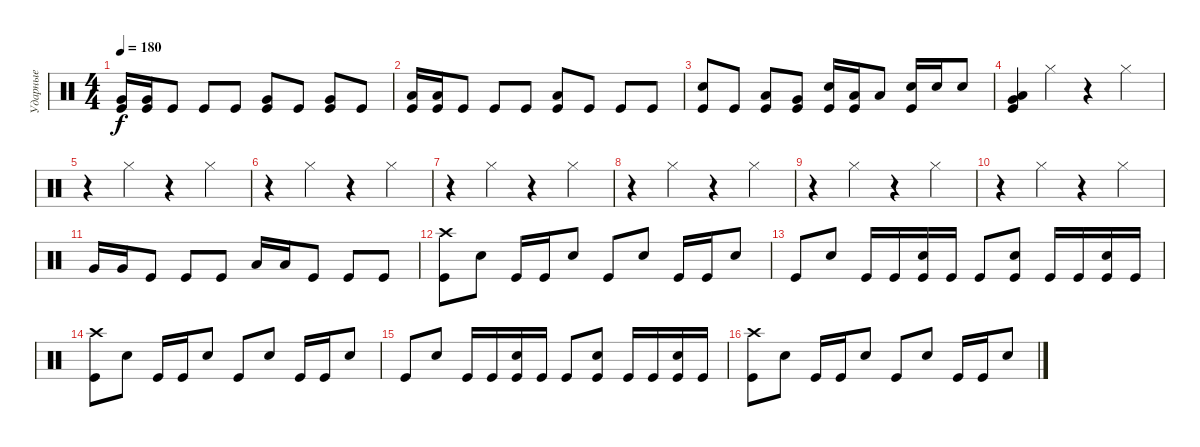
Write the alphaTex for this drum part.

\track ("Ударные" "Ударные") {instrument percussion}
\staff {score}
\articulation defaults
\ts (4 4)
\tempo 180
\clef neutral
\ks c
("Very Low Tom (hit)" "Kick (hit)").16{dy f} ("Very Low Tom (hit)" "Kick (hit)").16 "Kick (hit)".8 "Kick (hit)".8 "Kick (hit)".8 ("Very Low Tom (hit)" "Kick (hit)").8 "Kick (hit)".8 ("Very Low Tom (hit)" "Kick (hit)").8 "Kick (hit)".8 |
("Low Tom (hit)" "Kick (hit)").16 ("Low Tom (hit)" "Kick (hit)").16 "Kick (hit)".8 "Kick (hit)".8 "Kick (hit)".8 ("Low Tom (hit)" "Kick (hit)").8 "Kick (hit)".8 "Kick (hit)".8 "Kick (hit)".8 |
("Electric Snare (hit)" "Kick (hit)").8 "Kick (hit)".8 ("Low Tom (hit)" "Kick (hit)").8 ("Very Low Tom (hit)" "Kick (hit)").8 ("Electric Snare (hit)" "Kick (hit)").16 ("Low Tom (hit)" "Kick (hit)").16 "Low Tom (hit)".8 ("Electric Snare (hit)" "Kick (hit)").16 "Electric Snare (hit)".16 "Electric Snare (hit)".8 |
("Low Tom (hit)" "Very Low Tom (hit)" "Kick (hit)").4 "Hi-Hat (closed)".4 r.4 "Hi-Hat (closed)".4 |
r.4 "Hi-Hat (closed)".4 r.4 "Hi-Hat (closed)".4 |
r.4 "Hi-Hat (closed)".4 r.4 "Hi-Hat (closed)".4 |
r.4 "Hi-Hat (closed)".4 r.4 "Hi-Hat (closed)".4 |
r.4 "Hi-Hat (closed)".4 r.4 "Hi-Hat (closed)".4 |
r.4 "Hi-Hat (closed)".4 r.4 "Hi-Hat (closed)".4 |
r.4 "Hi-Hat (closed)".4 r.4 "Hi-Hat (closed)".4 |
"Very Low Tom (hit)".16 "Very Low Tom (hit)".16 "Kick (hit)".8 "Kick (hit)".8 "Kick (hit)".8 "Low Tom (hit)".16 "Low Tom (hit)".16 "Kick (hit)".8 "Kick (hit)".8 "Kick (hit)".8 |
("Crash high (hit)" "Kick (hit)").8 "Electric Snare (hit)".8 "Kick (hit)".16 "Kick (hit)".16 "Electric Snare (hit)".8 "Kick (hit)".8 "Electric Snare (hit)".8 "Kick (hit)".16 "Kick (hit)".16 "Electric Snare (hit)".8 |
"Kick (hit)".8 "Electric Snare (hit)".8 "Kick (hit)".16 "Kick (hit)".16 ("Electric Snare (hit)" "Kick (hit)").16 "Kick (hit)".16 "Kick (hit)".8 ("Electric Snare (hit)" "Kick (hit)").8 "Kick (hit)".16 "Kick (hit)".16 ("Electric Snare (hit)" "Kick (hit)").16 "Kick (hit)".16 |
("Crash high (hit)" "Kick (hit)").8 "Electric Snare (hit)".8 "Kick (hit)".16 "Kick (hit)".16 "Electric Snare (hit)".8 "Kick (hit)".8 "Electric Snare (hit)".8 "Kick (hit)".16 "Kick (hit)".16 "Electric Snare (hit)".8 |
"Kick (hit)".8 "Electric Snare (hit)".8 "Kick (hit)".16 "Kick (hit)".16 ("Electric Snare (hit)" "Kick (hit)").16 "Kick (hit)".16 "Kick (hit)".8 ("Electric Snare (hit)" "Kick (hit)").8 "Kick (hit)".16 "Kick (hit)".16 ("Electric Snare (hit)" "Kick (hit)").16 "Kick (hit)".16 |
("Crash high (hit)" "Kick (hit)").8 "Electric Snare (hit)".8 "Kick (hit)".16 "Kick (hit)".16 "Electric Snare (hit)".8 "Kick (hit)".8 "Electric Snare (hit)".8 "Kick (hit)".16 "Kick (hit)".16 "Electric Snare (hit)".8
